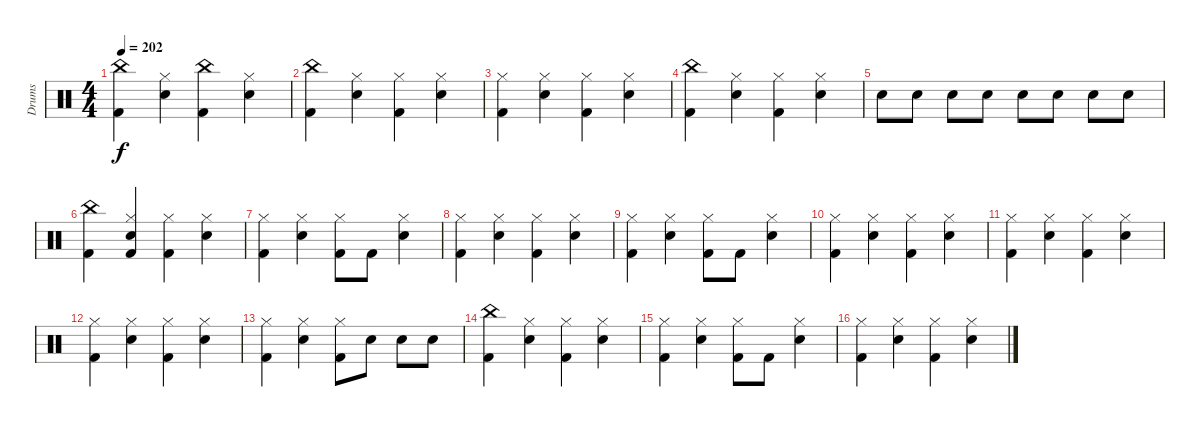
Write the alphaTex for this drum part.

\track ("Drums" "Drums") {instrument percussion}
\staff {score}
\articulation defaults
\ts (4 4)
\tempo 202
\clef neutral
\ks c
("China (hit)" "Kick (hit) 2").4{dy f} ("Hi-Hat (closed)" "Snare (hit) 2").4 ("China (hit)" "Kick (hit) 2").4 ("Hi-Hat (closed)" "Snare (hit) 2").4 |
("China (hit)" "Kick (hit) 2").4 ("Hi-Hat (closed)" "Snare (hit) 2").4 ("Hi-Hat (closed)" "Kick (hit) 2").4 ("Hi-Hat (closed)" "Snare (hit) 2").4 |
("Hi-Hat (closed)" "Kick (hit) 2").4 ("Hi-Hat (closed)" "Snare (hit) 2").4 ("Hi-Hat (closed)" "Kick (hit) 2").4 ("Hi-Hat (closed)" "Snare (hit) 2").4 |
("China (hit)" "Kick (hit) 2").4 ("Hi-Hat (closed)" "Snare (hit) 2").4 ("Hi-Hat (closed)" "Kick (hit) 2").4 ("Hi-Hat (closed)" "Snare (hit) 2").4 |
"Snare (hit) 2".8 "Snare (hit) 2".8 "Snare (hit) 2".8 "Snare (hit) 2".8 "Snare (hit) 2".8 "Snare (hit) 2".8 "Snare (hit) 2".8 "Snare (hit) 2".8 |
("China (hit)" "Kick (hit) 2").4 ("Hi-Hat (closed)" "Snare (hit) 2" "Kick (hit) 2").4 ("Hi-Hat (closed)" "Kick (hit) 2").4 ("Hi-Hat (closed)" "Snare (hit) 2").4 |
("Hi-Hat (closed)" "Kick (hit) 2").4 ("Hi-Hat (closed)" "Snare (hit) 2").4 ("Hi-Hat (closed)" "Kick (hit) 2").8 "Kick (hit) 2".8 ("Hi-Hat (closed)" "Snare (hit) 2").4 |
("Hi-Hat (closed)" "Kick (hit) 2").4 ("Hi-Hat (closed)" "Snare (hit) 2").4 ("Hi-Hat (closed)" "Kick (hit) 2").4 ("Hi-Hat (closed)" "Snare (hit) 2").4 |
("Hi-Hat (closed)" "Kick (hit) 2").4 ("Hi-Hat (closed)" "Snare (hit) 2").4 ("Hi-Hat (closed)" "Kick (hit) 2").8 "Kick (hit) 2".8 ("Hi-Hat (closed)" "Snare (hit) 2").4 |
("Hi-Hat (closed)" "Kick (hit) 2").4 ("Hi-Hat (closed)" "Snare (hit) 2").4 ("Hi-Hat (closed)" "Kick (hit) 2").4 ("Hi-Hat (closed)" "Snare (hit) 2").4 |
("Hi-Hat (closed)" "Kick (hit) 2").4 ("Hi-Hat (closed)" "Snare (hit) 2").4 ("Hi-Hat (closed)" "Kick (hit) 2").4 ("Hi-Hat (closed)" "Snare (hit) 2").4 |
("Hi-Hat (closed)" "Kick (hit) 2").4 ("Hi-Hat (closed)" "Snare (hit) 2").4 ("Hi-Hat (closed)" "Kick (hit) 2").4 ("Hi-Hat (closed)" "Snare (hit) 2").4 |
("Hi-Hat (closed)" "Kick (hit) 2").4 ("Hi-Hat (closed)" "Snare (hit) 2").4 ("Hi-Hat (closed)" "Kick (hit) 2").8 "Snare (hit) 2".8 "Snare (hit) 2".8 "Snare (hit) 2".8 |
("China (hit)" "Kick (hit) 2").4 ("Hi-Hat (closed)" "Snare (hit) 2").4 ("Hi-Hat (closed)" "Kick (hit) 2").4 ("Hi-Hat (closed)" "Snare (hit) 2").4 |
("Hi-Hat (closed)" "Kick (hit) 2").4 ("Hi-Hat (closed)" "Snare (hit) 2").4 ("Hi-Hat (closed)" "Kick (hit) 2").8 "Kick (hit) 2".8 ("Hi-Hat (closed)" "Snare (hit) 2").4 |
("Hi-Hat (closed)" "Kick (hit) 2").4 ("Hi-Hat (closed)" "Snare (hit) 2").4 ("Hi-Hat (closed)" "Kick (hit) 2").4 ("Hi-Hat (closed)" "Snare (hit) 2").4
